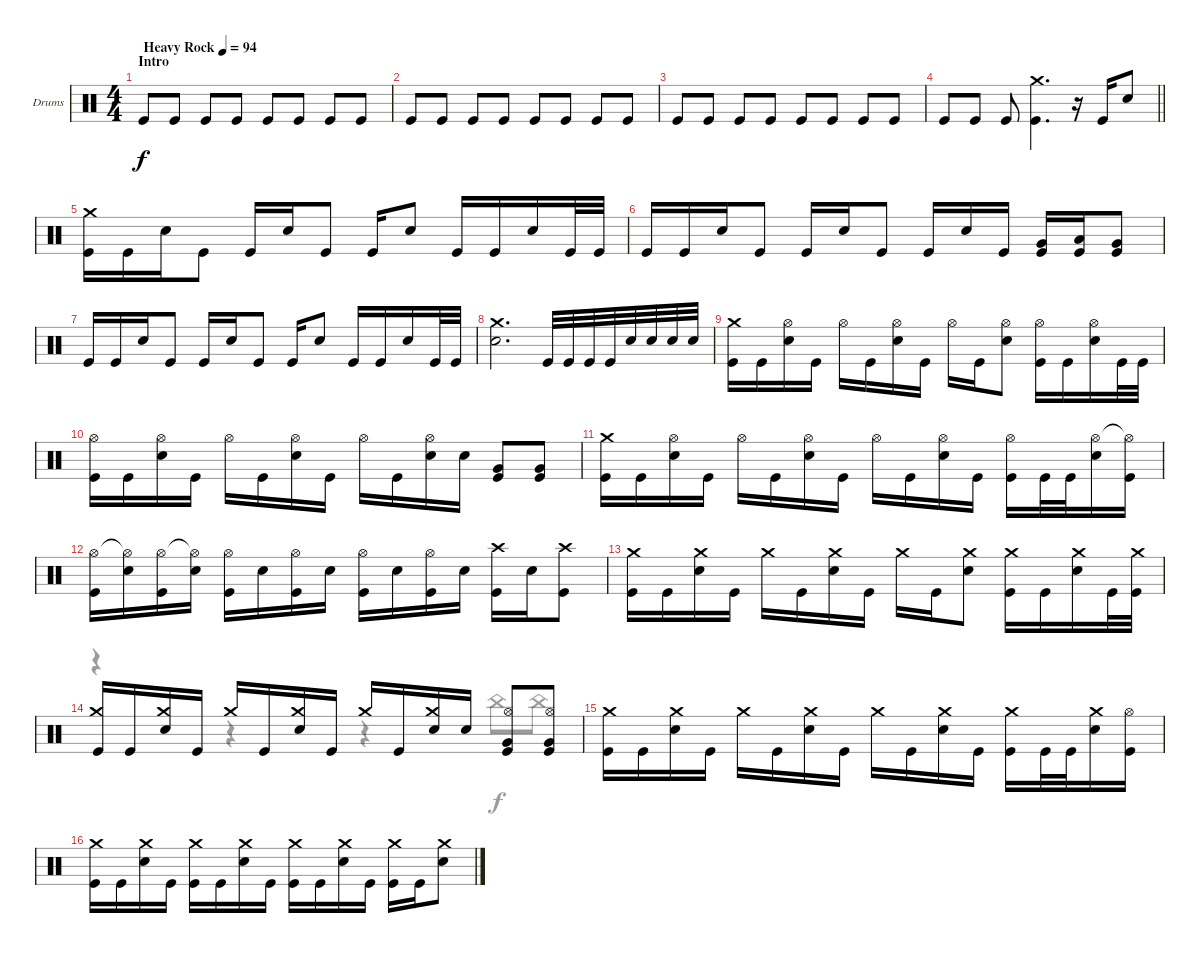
\bracketExtendMode groupsimilarinstruments
\firstSystemTrackNameOrientation horizontal
\otherSystemsTrackNameOrientation horizontal
\track ("Drumkit" "Drums") {instrument percussion}
\staff {score}
\articulation defaults
\voice
\ts (4 4)
\beaming (8 2 2 2 2)
\section ("" "Intro")
\tempo (94 "Heavy Rock")
\clef neutral
\ks c "Kick (hit)".8{dy f} "Kick (hit)".8 "Kick (hit)".8 "Kick (hit)".8 "Kick (hit)".8 "Kick (hit)".8 "Kick (hit)".8 "Kick (hit)".8
|
"Kick (hit)".8 "Kick (hit)".8 "Kick (hit)".8 "Kick (hit)".8 "Kick (hit)".8 "Kick (hit)".8 "Kick (hit)".8 "Kick (hit)".8 |
"Kick (hit)".8 "Kick (hit)".8 "Kick (hit)".8 "Kick (hit)".8 "Kick (hit)".8 "Kick (hit)".8 "Kick (hit)".8 "Kick (hit)".8 |
\barLineRight lightlight "Kick (hit)".8 "Kick (hit)".8 "Kick (hit)".8
("Crash medium (hit)" "Kick (hit)").4{d} r.16 "Kick (hit)".16 "Snare (hit) 2".8 |
\section ("" "")
("Crash medium (hit)" "Kick (hit)").16 "Kick (hit)".16 "Snare (hit) 2".16 "Kick (hit)".8 "Kick (hit)".16 "Snare (hit) 2".16 "Kick (hit)".8 "Kick (hit)".16 "Snare (hit) 2".8 "Kick (hit)".16 "Kick (hit)".16 "Snare (hit) 2".16 "Kick (hit)".32 "Kick (hit)".32 |
"Kick (hit)".16 "Kick (hit)".16 "Snare (hit) 2".16 "Kick (hit)".8 "Kick (hit)".16 "Snare (hit) 2".16 "Kick (hit)".8 "Kick (hit)".16 "Snare (hit) 2".16 "Kick (hit)".16 ("Very Low Tom (hit)" "Kick (hit)").16 ("Low Tom (hit)" "Kick (hit)").16 ("Very Low Tom (hit)" "Kick (hit)").8 |
"Kick (hit)".16 "Kick (hit)".16 "Snare (hit) 2".16 "Kick (hit)".8 "Kick (hit)".16 "Snare (hit) 2".16 "Kick (hit)".8 "Kick (hit)".16 "Snare (hit) 2".8 "Kick (hit)".16 "Kick (hit)".16 "Snare (hit) 2".16 "Kick (hit)".32 "Kick (hit)".32 |
("Crash medium (hit)" "Snare (hit) 2").2{d} "Kick (hit)".32 "Kick (hit)".32 "Kick (hit)".32 "Kick (hit)".32 "Snare (hit) 2".32 "Snare (hit) 2".32 "Snare (hit) 2".32 "Snare (hit) 2".32 |
("Crash medium (hit)" "Kick (hit)").16 "Kick (hit)".16 ("Hi-Hat (open)" "Snare (hit) 2").16 "Kick (hit)".16 "Hi-Hat (open)".16 "Kick (hit)".16 ("Hi-Hat (open)" "Snare (hit) 2").16 "Kick (hit)".16 "Hi-Hat (open)".16 "Kick (hit)".16 ("Hi-Hat (open)" "Snare (hit) 2").8 ("Hi-Hat (open)" "Kick (hit)").16 "Kick (hit)".16 ("Hi-Hat (open)" "Snare (hit) 2").16 "Kick (hit)".32 "Kick (hit)".32 |
("Hi-Hat (open)" "Kick (hit)").16 "Kick (hit)".16 ("Hi-Hat (open)" "Snare (hit) 2").16 "Kick (hit)".16 "Hi-Hat (open)".16 "Kick (hit)".16 ("Hi-Hat (open)" "Snare (hit) 2").16 "Kick (hit)".16 "Hi-Hat (open)".16 "Kick (hit)".16 ("Hi-Hat (open)" "Snare (hit) 2").16 "Snare (hit) 2".16 ("Very Low Tom (hit)" "Kick (hit)").8 ("Very Low Tom (hit)" "Kick (hit)").8 |
("Crash medium (hit)" "Kick (hit)").16 "Kick (hit)".16 ("Hi-Hat (open)" "Snare (hit) 2").16 "Kick (hit)".16 "Hi-Hat (open)".16 "Kick (hit)".16 ("Hi-Hat (open)" "Snare (hit) 2").16 "Kick (hit)".16 "Hi-Hat (open)".16 "Kick (hit)".16 ("Hi-Hat (open)" "Snare (hit) 2").16 "Kick (hit)".16 ("Hi-Hat (open)" "Kick (hit)").16 "Kick (hit)".32 "Kick (hit)".32 ("Hi-Hat (open)" "Snare (hit) 2").16 ("Hi-Hat (open)"{t} "Kick (hit)").16 |
("Hi-Hat (open)" "Kick (hit)").16 ("Hi-Hat (open)"{t} "Snare (hit) 2").16 ("Hi-Hat (open)" "Kick (hit)").16 ("Hi-Hat (open)"{t} "Snare (hit) 2").16 ("Hi-Hat (open)" "Kick (hit)").16 "Snare (hit) 2".16 ("Hi-Hat (open)" "Kick (hit)").16 "Snare (hit) 2".16 ("Hi-Hat (open)" "Kick (hit)").16 "Snare (hit) 2".16 ("Hi-Hat (open)" "Kick (hit)").16 "Snare (hit) 2".16 ("Crash high (hit)" "Kick (hit)").16 "Snare (hit) 2".16 ("Crash high (hit)" "Kick (hit)").8 |
("Crash medium (hit)" "Kick (hit)").16 "Kick (hit)".16 ("Crash medium (hit)" "Snare (hit) 2").16 "Kick (hit)".16 "Crash medium (hit)".16 "Kick (hit)".16 ("Crash medium (hit)" "Snare (hit) 2").16 "Kick (hit)".16 "Crash medium (hit)".16 "Kick (hit)".16 ("Crash medium (hit)" "Snare (hit) 2").8 ("Crash medium (hit)" "Kick (hit)").16 "Kick (hit)".16 ("Crash medium (hit)" "Snare (hit) 2").16 "Kick (hit)".32 ("Crash medium (hit)" "Kick (hit)").32 |
("Crash medium (hit)" "Kick (hit)").16 "Kick (hit)".16 ("Crash medium (hit)" "Snare (hit) 2").16 "Kick (hit)".16 "Crash medium (hit)".16 "Kick (hit)".16 ("Crash medium (hit)" "Snare (hit) 2").16 "Kick (hit)".16 "Crash medium (hit)".16 "Kick (hit)".16 ("Crash medium (hit)" "Snare (hit) 2").16 "Snare (hit) 2".16 ("Hi-Hat (open)" "Very Low Tom (hit)" "Kick (hit)").8 ("Hi-Hat (open)" "Very Low Tom (hit)" "Kick (hit)").8 |
("Crash medium (hit)" "Kick (hit)").16 "Kick (hit)".16 ("Crash medium (hit)" "Snare (hit) 2").16 "Kick (hit)".16 "Crash medium (hit)".16 "Kick (hit)".16 ("Crash medium (hit)" "Snare (hit) 2").16 "Kick (hit)".16 "Crash medium (hit)".16 "Kick (hit)".16 ("Crash medium (hit)" "Snare (hit) 2").16 "Kick (hit)".16 ("Crash medium (hit)" "Kick (hit)").16 "Kick (hit)".32 "Kick (hit)".32 ("Crash medium (hit)" "Snare (hit) 2").16 ("Hi-Hat (open)" "Kick (hit)").16 |
("Crash medium (hit)" "Kick (hit)").16 "Kick (hit)".16 ("Crash medium (hit)" "Snare (hit) 2").16 "Kick (hit)".16 ("Crash medium (hit)" "Kick (hit)").16 "Kick (hit)".16 ("Crash medium (hit)" "Snare (hit) 2").16 "Kick (hit)".16 ("Crash medium (hit)" "Kick (hit)").16 "Kick (hit)".16 ("Crash medium (hit)" "Snare (hit) 2").16 "Kick (hit)".16 ("Crash medium (hit)" "Kick (hit)").16 "Kick (hit)".16 ("Crash medium (hit)" "Snare (hit) 2").8
\voice
\clef neutral
\ottava regular
\simile none
\ks c
|
|
|
\barLineRight lightlight
|
|
|
|
|
|
|
|
|
|
r.4 r.4 r.4 "China (hit)".8 "China (hit)".8 |
|
